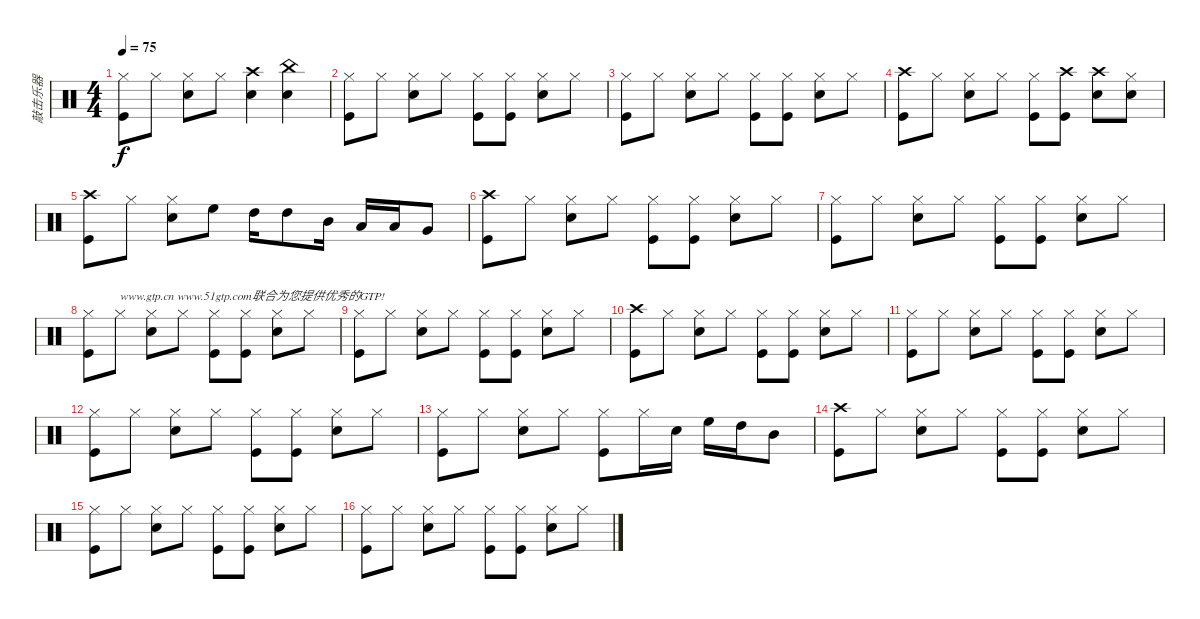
\track ("敲击乐器" "敲击乐器") {instrument percussion}
\staff {score}
\articulation defaults
\ts (4 4)
\tempo 75
\clef neutral
\ks c
("Hi-Hat (closed)" "Kick (hit)").8{dy f} "Hi-Hat (closed)".8 ("Snare (hit) 2" "Hi-Hat (closed)").8 "Hi-Hat (closed)".8 ("Snare (hit) 2" "Crash high (hit)").4 ("Snare (hit) 2" "China (hit)").4 |
("Hi-Hat (closed)" "Kick (hit)").8 "Hi-Hat (closed)".8 ("Snare (hit) 2" "Hi-Hat (closed)").8 "Hi-Hat (closed)".8 ("Kick (hit)" "Hi-Hat (closed)").8 ("Kick (hit)" "Hi-Hat (closed)").8 ("Snare (hit) 2" "Hi-Hat (closed)").8 "Hi-Hat (closed)".8 |
("Hi-Hat (closed)" "Kick (hit)").8 "Hi-Hat (closed)".8 ("Snare (hit) 2" "Hi-Hat (closed)").8 "Hi-Hat (closed)".8 ("Kick (hit)" "Hi-Hat (closed)").8 ("Kick (hit)" "Hi-Hat (closed)").8 ("Snare (hit) 2" "Hi-Hat (closed)").8 "Hi-Hat (closed)".8 |
("Crash high (hit)" "Kick (hit)").8 "Hi-Hat (closed)".8 ("Snare (hit) 2" "Hi-Hat (closed)").8 "Hi-Hat (closed)".8 ("Kick (hit)" "Hi-Hat (closed)").8 ("Kick (hit)" "Crash high (hit)").8 ("Crash high (hit)" "Snare (hit) 2").8 ("Snare (hit) 2" "Hi-Hat (closed)").8 |
("Kick (hit)" "Crash high (hit)").8 "Hi-Hat (closed)".8 ("Snare (hit) 2" "Hi-Hat (closed)").8 "High Floor Tom (hit)".8 "High Tom (hit)".16 "High Tom (hit)".8 "Mid Tom (hit)".16 "Low Tom (hit)".16 "Low Tom (hit)".16 "Very Low Tom (hit)".8 |
("Crash high (hit)" "Kick (hit)").8 "Hi-Hat (closed)".8 ("Snare (hit) 2" "Hi-Hat (closed)").8 "Hi-Hat (closed)".8 ("Kick (hit)" "Hi-Hat (closed)").8 ("Kick (hit)" "Hi-Hat (closed)").8 ("Snare (hit) 2" "Hi-Hat (closed)").8 "Hi-Hat (closed)".8 |
("Hi-Hat (closed)" "Kick (hit)").8 "Hi-Hat (closed)".8 ("Snare (hit) 2" "Hi-Hat (closed)").8 "Hi-Hat (closed)".8 ("Kick (hit)" "Hi-Hat (closed)").8 ("Kick (hit)" "Hi-Hat (closed)").8 ("Snare (hit) 2" "Hi-Hat (closed)").8 "Hi-Hat (closed)".8 |
("Hi-Hat (closed)" "Kick (hit)").8 "Hi-Hat (closed)".8{txt "www.gtp.cn www.51gtp.com联合为您提供优秀的GTP!"} ("Snare (hit) 2" "Hi-Hat (closed)").8 "Hi-Hat (closed)".8 ("Kick (hit)" "Hi-Hat (closed)").8 ("Kick (hit)" "Hi-Hat (closed)").8 ("Snare (hit) 2" "Hi-Hat (closed)").8 "Hi-Hat (closed)".8 |
("Hi-Hat (closed)" "Kick (hit)").8 "Hi-Hat (closed)".8 ("Snare (hit) 2" "Hi-Hat (closed)").8 "Hi-Hat (closed)".8 ("Kick (hit)" "Hi-Hat (closed)").8 ("Kick (hit)" "Hi-Hat (closed)").8 ("Snare (hit) 2" "Hi-Hat (closed)").8 "Hi-Hat (closed)".8 |
("Crash high (hit)" "Kick (hit)").8 "Hi-Hat (closed)".8 ("Snare (hit) 2" "Hi-Hat (closed)").8 "Hi-Hat (closed)".8 ("Kick (hit)" "Hi-Hat (closed)").8 ("Kick (hit)" "Hi-Hat (closed)").8 ("Snare (hit) 2" "Hi-Hat (closed)").8 "Hi-Hat (closed)".8 |
("Hi-Hat (closed)" "Kick (hit)").8 "Hi-Hat (closed)".8 ("Snare (hit) 2" "Hi-Hat (closed)").8 "Hi-Hat (closed)".8 ("Kick (hit)" "Hi-Hat (closed)").8 ("Kick (hit)" "Hi-Hat (closed)").8 ("Snare (hit) 2" "Hi-Hat (closed)").8 "Hi-Hat (closed)".8 |
("Hi-Hat (closed)" "Kick (hit)").8 "Hi-Hat (closed)".8 ("Snare (hit) 2" "Hi-Hat (closed)").8 "Hi-Hat (closed)".8 ("Kick (hit)" "Hi-Hat (closed)").8 ("Kick (hit)" "Hi-Hat (closed)").8 ("Snare (hit) 2" "Hi-Hat (closed)").8 "Hi-Hat (closed)".8 |
("Kick (hit)" "Hi-Hat (closed)").8 "Hi-Hat (closed)".8 ("Snare (hit) 2" "Hi-Hat (closed)").8 "Hi-Hat (closed)".8 ("Kick (hit)" "Hi-Hat (closed)").8 "Hi-Hat (closed)".16 "Snare (hit) 2".16 "High Floor Tom (hit)".16 "High Tom (hit)".16 "Mid Tom (hit)".8 |
("Crash high (hit)" "Kick (hit)").8 "Hi-Hat (closed)".8 ("Snare (hit) 2" "Hi-Hat (closed)").8 "Hi-Hat (closed)".8 ("Kick (hit)" "Hi-Hat (closed)").8 ("Kick (hit)" "Hi-Hat (closed)").8 ("Snare (hit) 2" "Hi-Hat (closed)").8 "Hi-Hat (closed)".8 |
("Hi-Hat (closed)" "Kick (hit)").8 "Hi-Hat (closed)".8 ("Snare (hit) 2" "Hi-Hat (closed)").8 "Hi-Hat (closed)".8 ("Kick (hit)" "Hi-Hat (closed)").8 ("Kick (hit)" "Hi-Hat (closed)").8 ("Snare (hit) 2" "Hi-Hat (closed)").8 "Hi-Hat (closed)".8 |
("Hi-Hat (closed)" "Kick (hit)").8 "Hi-Hat (closed)".8 ("Snare (hit) 2" "Hi-Hat (closed)").8 "Hi-Hat (closed)".8 ("Kick (hit)" "Hi-Hat (closed)").8 ("Kick (hit)" "Hi-Hat (closed)").8 ("Snare (hit) 2" "Hi-Hat (closed)").8 "Hi-Hat (closed)".8
